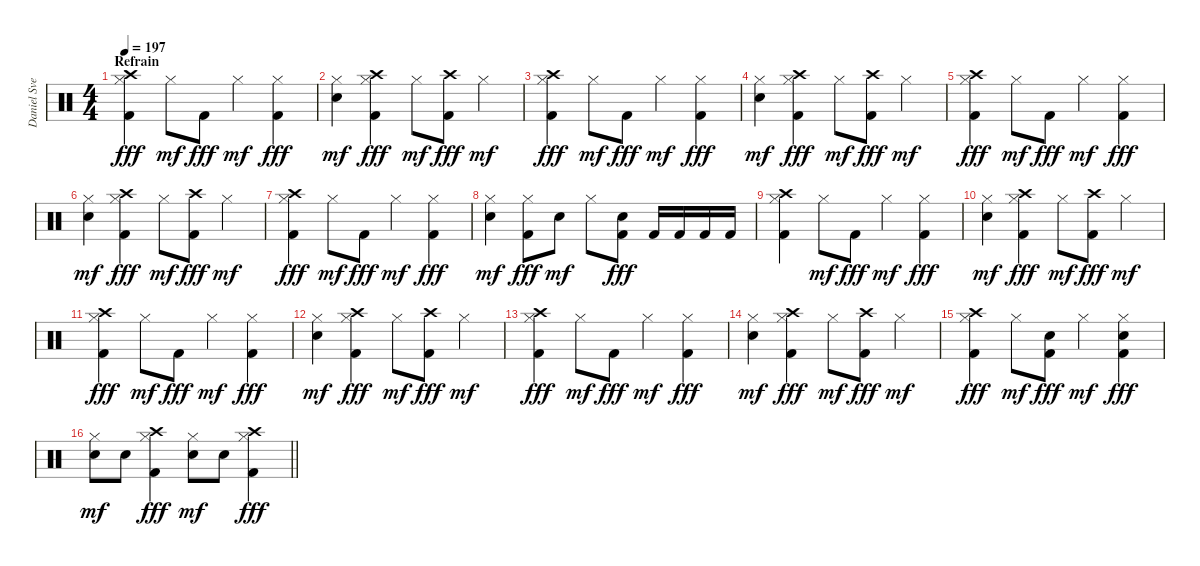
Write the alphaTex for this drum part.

\track ("Daniel Svensson" "Daniel Sve") {instrument percussion}
\staff {score}
\articulation defaults
\ts (4 4)
\section ("" "Refrain")
\tempo 197
\clef neutral
\ks c
("Crash high (hit)" "Hi-Hat (closed)" "Kick (hit) 2").4{dy fff} "Hi-Hat (closed)".8{dy mf} "Kick (hit) 2".8{dy fff} "Hi-Hat (closed)".4{dy mf} ("Hi-Hat (closed)" "Kick (hit) 2").4{dy fff} |
("Hi-Hat (closed)" "Electric Snare (hit)").4{dy mf} ("Crash high (hit)" "Hi-Hat (closed)" "Kick (hit) 2").4{dy fff} "Hi-Hat (closed)".8{dy mf} ("Crash high (hit)" "Kick (hit) 2").8{dy fff} "Hi-Hat (closed)".4{dy mf} |
("Crash high (hit)" "Hi-Hat (closed)" "Kick (hit) 2").4{dy fff} "Hi-Hat (closed)".8{dy mf} "Kick (hit) 2".8{dy fff} "Hi-Hat (closed)".4{dy mf} ("Hi-Hat (closed)" "Kick (hit) 2").4{dy fff} |
("Hi-Hat (closed)" "Electric Snare (hit)").4{dy mf} ("Crash high (hit)" "Hi-Hat (closed)" "Kick (hit) 2").4{dy fff} "Hi-Hat (closed)".8{dy mf} ("Crash high (hit)" "Kick (hit) 2").8{dy fff} "Hi-Hat (closed)".4{dy mf} |
("Crash high (hit)" "Hi-Hat (closed)" "Kick (hit) 2").4{dy fff} "Hi-Hat (closed)".8{dy mf} "Kick (hit) 2".8{dy fff} "Hi-Hat (closed)".4{dy mf} ("Hi-Hat (closed)" "Kick (hit) 2").4{dy fff} |
("Hi-Hat (closed)" "Electric Snare (hit)").4{dy mf} ("Crash high (hit)" "Hi-Hat (closed)" "Kick (hit) 2").4{dy fff} "Hi-Hat (closed)".8{dy mf} ("Crash high (hit)" "Kick (hit) 2").8{dy fff} "Hi-Hat (closed)".4{dy mf} |
("Crash high (hit)" "Hi-Hat (closed)" "Kick (hit) 2").4{dy fff} "Hi-Hat (closed)".8{dy mf} "Kick (hit) 2".8{dy fff} "Hi-Hat (closed)".4{dy mf} ("Hi-Hat (closed)" "Kick (hit) 2").4{dy fff} |
("Hi-Hat (closed)" "Electric Snare (hit)").4{dy mf} ("Hi-Hat (closed)" "Kick (hit) 2").8{dy fff} "Electric Snare (hit)".8{dy mf} "Hi-Hat (closed)".8 ("Electric Snare (hit)" "Kick (hit) 2").8{dy fff} "Kick (hit) 2".16 "Kick (hit) 2".16 "Kick (hit) 2".16 "Kick (hit) 2".16 |
("Crash high (hit)" "Hi-Hat (closed)" "Kick (hit) 2").4 "Hi-Hat (closed)".8{dy mf} "Kick (hit) 2".8{dy fff} "Hi-Hat (closed)".4{dy mf} ("Hi-Hat (closed)" "Kick (hit) 2").4{dy fff} |
("Hi-Hat (closed)" "Electric Snare (hit)").4{dy mf} ("Crash high (hit)" "Hi-Hat (closed)" "Kick (hit) 2").4{dy fff} "Hi-Hat (closed)".8{dy mf} ("Crash high (hit)" "Kick (hit) 2").8{dy fff} "Hi-Hat (closed)".4{dy mf} |
("Crash high (hit)" "Hi-Hat (closed)" "Kick (hit) 2").4{dy fff} "Hi-Hat (closed)".8{dy mf} "Kick (hit) 2".8{dy fff} "Hi-Hat (closed)".4{dy mf} ("Hi-Hat (closed)" "Kick (hit) 2").4{dy fff} |
("Hi-Hat (closed)" "Electric Snare (hit)").4{dy mf} ("Crash high (hit)" "Hi-Hat (closed)" "Kick (hit) 2").4{dy fff} "Hi-Hat (closed)".8{dy mf} ("Crash high (hit)" "Kick (hit) 2").8{dy fff} "Hi-Hat (closed)".4{dy mf} |
("Crash high (hit)" "Hi-Hat (closed)" "Kick (hit) 2").4{dy fff} "Hi-Hat (closed)".8{dy mf} "Kick (hit) 2".8{dy fff} "Hi-Hat (closed)".4{dy mf} ("Hi-Hat (closed)" "Kick (hit) 2").4{dy fff} |
("Hi-Hat (closed)" "Electric Snare (hit)").4{dy mf} ("Crash high (hit)" "Hi-Hat (closed)" "Kick (hit) 2").4{dy fff} "Hi-Hat (closed)".8{dy mf} ("Crash high (hit)" "Kick (hit) 2").8{dy fff} "Hi-Hat (closed)".4{dy mf} |
("Crash high (hit)" "Hi-Hat (closed)" "Kick (hit) 2").4{dy fff} "Hi-Hat (closed)".8{dy mf} ("Electric Snare (hit)" "Kick (hit) 2").8{dy fff} "Hi-Hat (closed)".4{dy mf} ("Hi-Hat (closed)" "Electric Snare (hit)" "Kick (hit) 2").4{dy fff} |
\barLineRight lightlight
("Hi-Hat (closed)" "Electric Snare (hit)").8{dy mf} "Electric Snare (hit)".8 ("Crash high (hit)" "Hi-Hat (closed)" "Kick (hit) 2").4{dy fff} ("Hi-Hat (closed)" "Electric Snare (hit)").8{dy mf} "Electric Snare (hit)".8 ("Crash high (hit)" "Hi-Hat (closed)" "Kick (hit) 2").4{dy fff}
